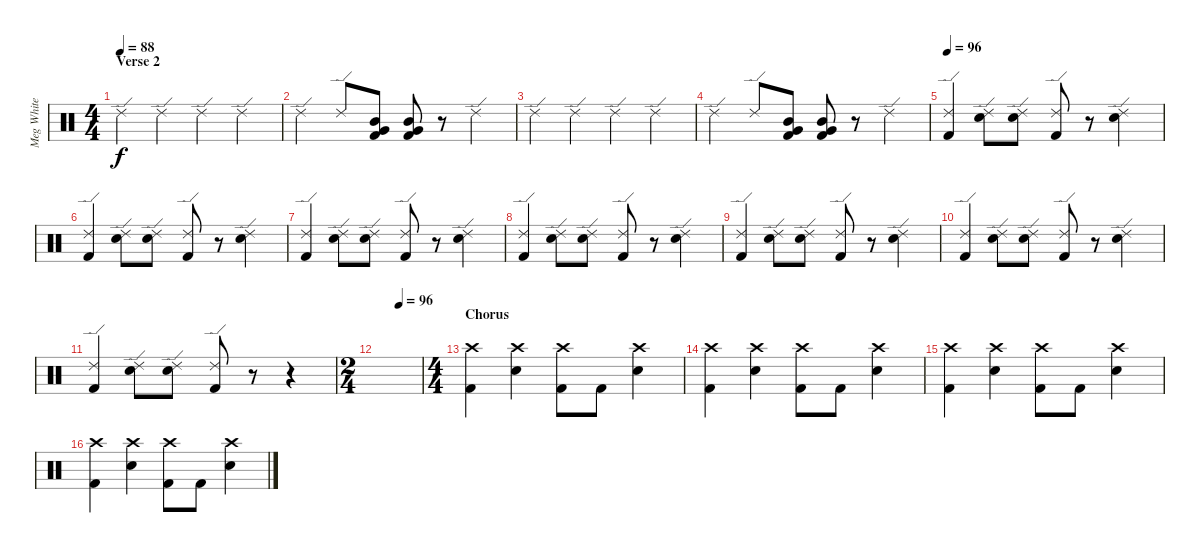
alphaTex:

\track ("Meg White - Drums" "Meg White ") {instrument percussion}
\staff {score}
\articulation defaults
\ts (4 4)
\section ("" "Verse 2")
\tempo 88
\clef neutral
\ks c "Ride (edge) 2".4{dy f} "Ride (edge) 2".4 "Ride (edge) 2".4 "Ride (edge) 2".4
|
"Ride (edge) 2".4 "Ride (edge) 2".8 ("Very Low Tom (hit)" "Mid Tom (hit)" "Kick (hit) 2").8 ("Very Low Tom (hit)" "Mid Tom (hit)" "Kick (hit) 2").8 r.8 "Ride (edge) 2".4 |
"Ride (edge) 2".4 "Ride (edge) 2".4 "Ride (edge) 2".4 "Ride (edge) 2".4 |
"Ride (edge) 2".4 "Ride (edge) 2".8 ("Very Low Tom (hit)" "Mid Tom (hit)" "Kick (hit) 2").8 ("Very Low Tom (hit)" "Mid Tom (hit)" "Kick (hit) 2").8 r.8 "Ride (edge) 2".4 |
\tempo 96
("Ride (edge) 2" "Kick (hit) 2").4 ("Ride (edge) 2" "Snare (hit) 2").8 ("Ride (edge) 2" "Snare (hit) 2").8 ("Ride (edge) 2" "Kick (hit) 2").8 r.8 ("Ride (edge) 2" "Snare (hit) 2").4 |
("Ride (edge) 2" "Kick (hit) 2").4 ("Ride (edge) 2" "Snare (hit) 2").8 ("Ride (edge) 2" "Snare (hit) 2").8 ("Ride (edge) 2" "Kick (hit) 2").8 r.8 ("Ride (edge) 2" "Snare (hit) 2").4 |
("Ride (edge) 2" "Kick (hit) 2").4 ("Ride (edge) 2" "Snare (hit) 2").8 ("Ride (edge) 2" "Snare (hit) 2").8 ("Ride (edge) 2" "Kick (hit) 2").8 r.8 ("Ride (edge) 2" "Snare (hit) 2").4 |
("Ride (edge) 2" "Kick (hit) 2").4 ("Ride (edge) 2" "Snare (hit) 2").8 ("Ride (edge) 2" "Snare (hit) 2").8 ("Ride (edge) 2" "Kick (hit) 2").8 r.8 ("Ride (edge) 2" "Snare (hit) 2").4 |
("Ride (edge) 2" "Kick (hit) 2").4 ("Ride (edge) 2" "Snare (hit) 2").8 ("Ride (edge) 2" "Snare (hit) 2").8 ("Ride (edge) 2" "Kick (hit) 2").8 r.8 ("Ride (edge) 2" "Snare (hit) 2").4 |
("Ride (edge) 2" "Kick (hit) 2").4 ("Ride (edge) 2" "Snare (hit) 2").8 ("Ride (edge) 2" "Snare (hit) 2").8 ("Ride (edge) 2" "Kick (hit) 2").8 r.8 ("Ride (edge) 2" "Snare (hit) 2").4 |
("Ride (edge) 2" "Kick (hit) 2").4 ("Ride (edge) 2" "Snare (hit) 2").8 ("Ride (edge) 2" "Snare (hit) 2").8 ("Ride (edge) 2" "Kick (hit) 2").8 r.8 r.4 |
\ts (2 4)
\tempo (96 0.5)
|
\ts (4 4)
\section ("" "Chorus")
("Crash high (hit)" "Kick (hit) 2").4 ("Crash high (hit)" "Snare (hit) 2").4 ("Crash high (hit)" "Kick (hit) 2").8 "Kick (hit) 2".8 ("Crash high (hit)" "Snare (hit) 2").4 |
("Crash high (hit)" "Kick (hit) 2").4 ("Crash high (hit)" "Snare (hit) 2").4 ("Crash high (hit)" "Kick (hit) 2").8 "Kick (hit) 2".8 ("Crash high (hit)" "Snare (hit) 2").4 |
("Crash high (hit)" "Kick (hit) 2").4 ("Crash high (hit)" "Snare (hit) 2").4 ("Crash high (hit)" "Kick (hit) 2").8 "Kick (hit) 2".8 ("Crash high (hit)" "Snare (hit) 2").4 |
("Crash high (hit)" "Kick (hit) 2").4 ("Crash high (hit)" "Snare (hit) 2").4 ("Crash high (hit)" "Kick (hit) 2").8 "Kick (hit) 2".8 ("Crash high (hit)" "Snare (hit) 2").4
